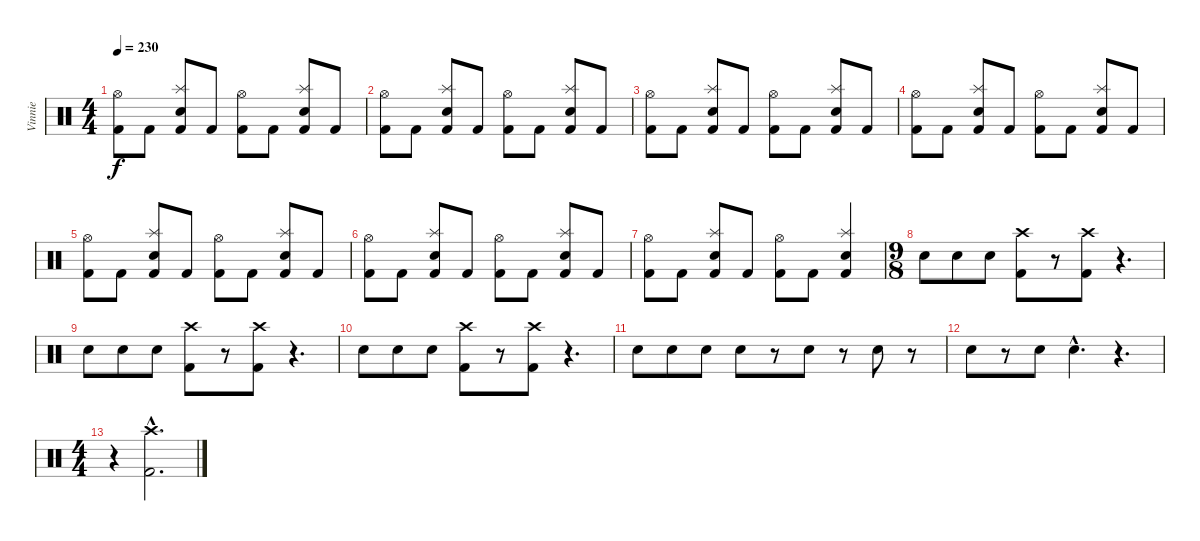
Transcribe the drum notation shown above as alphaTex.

\track ("Vinnie" "Vinnie") {instrument percussion}
\staff {score}
\articulation defaults
\ts (4 4)
\tempo 230
\clef neutral
\ks c
("Hi-Hat (open)" "Kick (hit) 2").8{dy f} "Kick (hit) 2".8 ("Splash (hit)" "Snare (hit) 2" "Kick (hit) 2").8 "Kick (hit) 2".8 ("Hi-Hat (open)" "Kick (hit) 2").8 "Kick (hit) 2".8 ("Splash (hit)" "Snare (hit) 2" "Kick (hit) 2").8 "Kick (hit) 2".8 |
("Hi-Hat (open)" "Kick (hit) 2").8 "Kick (hit) 2".8 ("Splash (hit)" "Snare (hit) 2" "Kick (hit) 2").8 "Kick (hit) 2".8 ("Hi-Hat (open)" "Kick (hit) 2").8 "Kick (hit) 2".8 ("Splash (hit)" "Snare (hit) 2" "Kick (hit) 2").8 "Kick (hit) 2".8 |
("Hi-Hat (open)" "Kick (hit) 2").8 "Kick (hit) 2".8 ("Splash (hit)" "Snare (hit) 2" "Kick (hit) 2").8 "Kick (hit) 2".8 ("Hi-Hat (open)" "Kick (hit) 2").8 "Kick (hit) 2".8 ("Splash (hit)" "Snare (hit) 2" "Kick (hit) 2").8 "Kick (hit) 2".8 |
("Hi-Hat (open)" "Kick (hit) 2").8 "Kick (hit) 2".8 ("Splash (hit)" "Snare (hit) 2" "Kick (hit) 2").8 "Kick (hit) 2".8 ("Hi-Hat (open)" "Kick (hit) 2").8 "Kick (hit) 2".8 ("Splash (hit)" "Snare (hit) 2" "Kick (hit) 2").8 "Kick (hit) 2".8 |
("Hi-Hat (open)" "Kick (hit) 2").8 "Kick (hit) 2".8 ("Splash (hit)" "Snare (hit) 2" "Kick (hit) 2").8 "Kick (hit) 2".8 ("Hi-Hat (open)" "Kick (hit) 2").8 "Kick (hit) 2".8 ("Splash (hit)" "Snare (hit) 2" "Kick (hit) 2").8 "Kick (hit) 2".8 |
("Hi-Hat (open)" "Kick (hit) 2").8 "Kick (hit) 2".8 ("Splash (hit)" "Snare (hit) 2" "Kick (hit) 2").8 "Kick (hit) 2".8 ("Hi-Hat (open)" "Kick (hit) 2").8 "Kick (hit) 2".8 ("Splash (hit)" "Snare (hit) 2" "Kick (hit) 2").8 "Kick (hit) 2".8 |
("Hi-Hat (open)" "Kick (hit) 2").8 "Kick (hit) 2".8 ("Splash (hit)" "Snare (hit) 2" "Kick (hit) 2").8 "Kick (hit) 2".8 ("Hi-Hat (open)" "Kick (hit) 2").8 "Kick (hit) 2".8 ("Splash (hit)" "Snare (hit) 2" "Kick (hit) 2").4 |
\ts (9 8)
"Snare (hit) 2".8 "Snare (hit) 2".8 "Snare (hit) 2".8 ("Crash high (hit)" "Kick (hit) 2").8 r.8 ("Crash high (hit)" "Kick (hit) 2").8 r.4{d} |
"Snare (hit) 2".8 "Snare (hit) 2".8 "Snare (hit) 2".8 ("Crash high (hit)" "Kick (hit) 2").8 r.8 ("Crash high (hit)" "Kick (hit) 2").8 r.4{d} |
"Snare (hit) 2".8 "Snare (hit) 2".8 "Snare (hit) 2".8 ("Crash high (hit)" "Kick (hit) 2").8 r.8 ("Crash high (hit)" "Kick (hit) 2").8 r.4{d} |
"Snare (hit) 2".8 "Snare (hit) 2".8 "Snare (hit) 2".8 "Snare (hit) 2".8 r.8 "Snare (hit) 2".8 r.8 "Snare (hit) 2".8 r.8 |
"Snare (hit) 2".8 r.8 "Snare (hit) 2".8 "Snare (hit) 2"{hac}.4{d} r.4{d} |
\ts (4 4)
r.4 ("Crash high (hit)"{hac} "Kick (hit) 2"{hac}).2{d}
